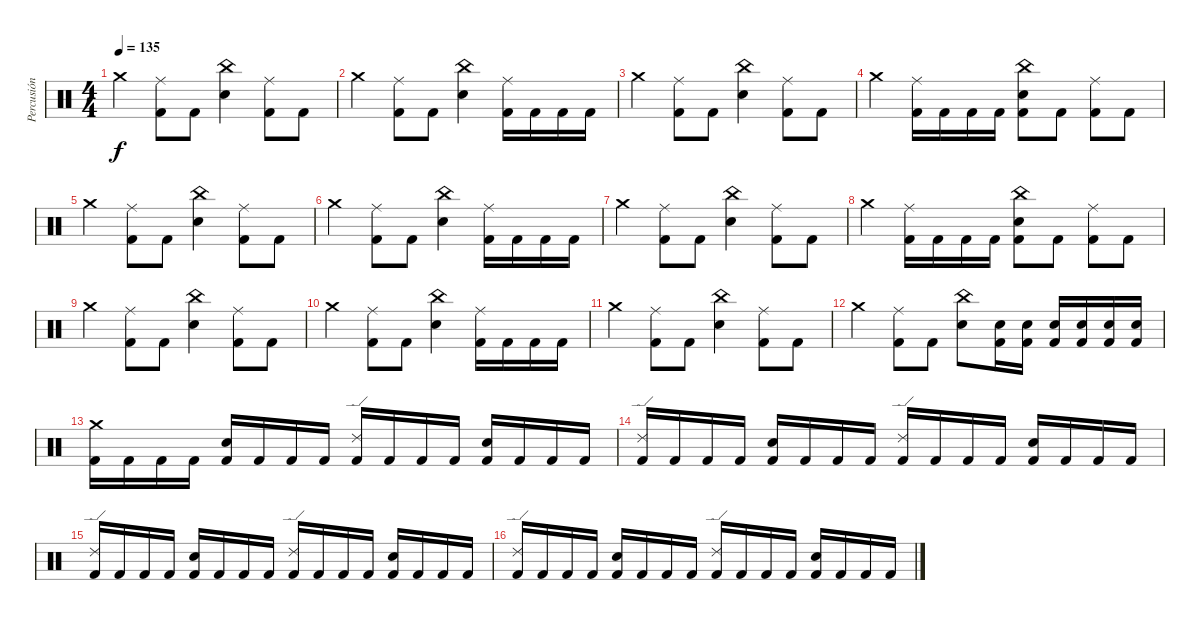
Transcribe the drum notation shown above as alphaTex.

\track ("Percusión" "Percusión") {instrument percussion}
\staff {score}
\articulation defaults
\ts (4 4)
\tempo 135
\clef neutral
\ks c "Crash medium (hit)".4{dy f}
("Ride (middle)" "Kick (hit) 2").8 "Kick (hit) 2".8 ("Snare (hit) 2" "China (hit)").4 ("Ride (middle)" "Kick (hit) 2").8 "Kick (hit) 2".8 |
"Crash medium (hit)".4 ("Ride (middle)" "Kick (hit) 2").8 "Kick (hit) 2".8 ("Snare (hit) 2" "China (hit)").4 ("Ride (middle)" "Kick (hit) 2").16 "Kick (hit) 2".16 "Kick (hit) 2".16 "Kick (hit) 2".16 |
"Crash medium (hit)".4 ("Ride (middle)" "Kick (hit) 2").8 "Kick (hit) 2".8 ("Snare (hit) 2" "China (hit)").4 ("Ride (middle)" "Kick (hit) 2").8 "Kick (hit) 2".8 |
"Crash medium (hit)".4 ("Ride (middle)" "Kick (hit) 2").16 "Kick (hit) 2".16 "Kick (hit) 2".16 "Kick (hit) 2".16 ("Snare (hit) 2" "China (hit)" "Kick (hit) 2").8 "Kick (hit) 2".8 ("Ride (middle)" "Kick (hit) 2").8 "Kick (hit) 2".8 |
"Crash medium (hit)".4 ("Ride (middle)" "Kick (hit) 2").8 "Kick (hit) 2".8 ("Snare (hit) 2" "China (hit)").4 ("Ride (middle)" "Kick (hit) 2").8 "Kick (hit) 2".8 |
"Crash medium (hit)".4 ("Ride (middle)" "Kick (hit) 2").8 "Kick (hit) 2".8 ("Snare (hit) 2" "China (hit)").4 ("Ride (middle)" "Kick (hit) 2").16 "Kick (hit) 2".16 "Kick (hit) 2".16 "Kick (hit) 2".16 |
"Crash medium (hit)".4 ("Ride (middle)" "Kick (hit) 2").8 "Kick (hit) 2".8 ("Snare (hit) 2" "China (hit)").4 ("Ride (middle)" "Kick (hit) 2").8 "Kick (hit) 2".8 |
"Crash medium (hit)".4 ("Ride (middle)" "Kick (hit) 2").16 "Kick (hit) 2".16 "Kick (hit) 2".16 "Kick (hit) 2".16 ("Snare (hit) 2" "China (hit)" "Kick (hit) 2").8 "Kick (hit) 2".8 ("Ride (middle)" "Kick (hit) 2").8 "Kick (hit) 2".8 |
"Crash medium (hit)".4 ("Ride (middle)" "Kick (hit) 2").8 "Kick (hit) 2".8 ("Snare (hit) 2" "China (hit)").4 ("Ride (middle)" "Kick (hit) 2").8 "Kick (hit) 2".8 |
"Crash medium (hit)".4 ("Ride (middle)" "Kick (hit) 2").8 "Kick (hit) 2".8 ("Snare (hit) 2" "China (hit)").4 ("Ride (middle)" "Kick (hit) 2").16 "Kick (hit) 2".16 "Kick (hit) 2".16 "Kick (hit) 2".16 |
"Crash medium (hit)".4 ("Ride (middle)" "Kick (hit) 2").8 "Kick (hit) 2".8 ("Snare (hit) 2" "China (hit)").4 ("Ride (middle)" "Kick (hit) 2").8 "Kick (hit) 2".8 |
"Crash medium (hit)".4 ("Ride (middle)" "Kick (hit) 2").8 "Kick (hit) 2".8 ("Snare (hit) 2" "China (hit)").8 ("Snare (hit) 2" "Kick (hit) 2").16 ("Snare (hit) 2" "Kick (hit) 2").16 ("Snare (hit) 2" "Kick (hit) 2").16 ("Snare (hit) 2" "Kick (hit) 2").16 ("Snare (hit) 2" "Kick (hit) 2").16 ("Snare (hit) 2" "Kick (hit) 2").16 |
("Crash medium (hit)" "Kick (hit) 2").16 "Kick (hit) 2".16 "Kick (hit) 2".16 "Kick (hit) 2".16 ("Snare (hit) 2" "Kick (hit) 2").16 "Kick (hit) 2".16 "Kick (hit) 2".16 "Kick (hit) 2".16 ("Ride (edge) 2" "Kick (hit) 2").16 "Kick (hit) 2".16 "Kick (hit) 2".16 "Kick (hit) 2".16 ("Snare (hit) 2" "Kick (hit) 2").16 "Kick (hit) 2".16 "Kick (hit) 2".16 "Kick (hit) 2".16 |
("Ride (edge) 2" "Kick (hit) 2").16 "Kick (hit) 2".16 "Kick (hit) 2".16 "Kick (hit) 2".16 ("Snare (hit) 2" "Kick (hit) 2").16 "Kick (hit) 2".16 "Kick (hit) 2".16 "Kick (hit) 2".16 ("Ride (edge) 2" "Kick (hit) 2").16 "Kick (hit) 2".16 "Kick (hit) 2".16 "Kick (hit) 2".16 ("Snare (hit) 2" "Kick (hit) 2").16 "Kick (hit) 2".16 "Kick (hit) 2".16 "Kick (hit) 2".16 |
("Ride (edge) 2" "Kick (hit) 2").16 "Kick (hit) 2".16 "Kick (hit) 2".16 "Kick (hit) 2".16 ("Snare (hit) 2" "Kick (hit) 2").16 "Kick (hit) 2".16 "Kick (hit) 2".16 "Kick (hit) 2".16 ("Ride (edge) 2" "Kick (hit) 2").16 "Kick (hit) 2".16 "Kick (hit) 2".16 "Kick (hit) 2".16 ("Snare (hit) 2" "Kick (hit) 2").16 "Kick (hit) 2".16 "Kick (hit) 2".16 "Kick (hit) 2".16 |
("Ride (edge) 2" "Kick (hit) 2").16 "Kick (hit) 2".16 "Kick (hit) 2".16 "Kick (hit) 2".16 ("Snare (hit) 2" "Kick (hit) 2").16 "Kick (hit) 2".16 "Kick (hit) 2".16 "Kick (hit) 2".16 ("Ride (edge) 2" "Kick (hit) 2").16 "Kick (hit) 2".16 "Kick (hit) 2".16 "Kick (hit) 2".16 ("Snare (hit) 2" "Kick (hit) 2").16 "Kick (hit) 2".16 "Kick (hit) 2".16 "Kick (hit) 2".16
